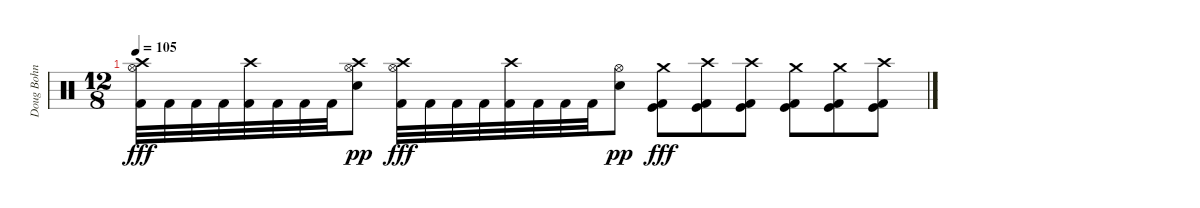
\track ("Doug Bohn" "Doug Bohn") {instrument percussion}
\staff {score}
\articulation defaults
\ts (12 8)
\tempo 105
\clef neutral
\ks c
("Crash high (hit)" "Hi-Hat (open)" "Kick (hit) 2").32{dy fff} "Kick (hit) 2".32 "Kick (hit) 2".32 "Kick (hit) 2".32 ("Crash high (hit)" "Kick (hit) 2").32 "Kick (hit) 2".32 "Kick (hit) 2".32 "Kick (hit) 2".32 ("Crash high (hit)" "Hi-Hat (open)" "Snare (hit) 2").8{dy pp} ("Crash high (hit)" "Hi-Hat (open)" "Kick (hit) 2").32{dy fff} "Kick (hit) 2".32 "Kick (hit) 2".32 "Kick (hit) 2".32 ("Crash high (hit)" "Kick (hit) 2").32 "Kick (hit) 2".32 "Kick (hit) 2".32 "Kick (hit) 2".32 ("Hi-Hat (open)" "Snare (hit) 2").8{dy pp} ("Crash medium (hit)" "Kick (hit)" "Kick (hit) 2").8{dy fff} ("Crash high (hit)" "Kick (hit)" "Kick (hit) 2").8 ("Crash high (hit)" "Kick (hit)" "Kick (hit) 2").8 ("Crash medium (hit)" "Kick (hit)" "Kick (hit) 2").8 ("Crash medium (hit)" "Kick (hit)" "Kick (hit) 2").8 ("Crash high (hit)" "Kick (hit)" "Kick (hit) 2").8
